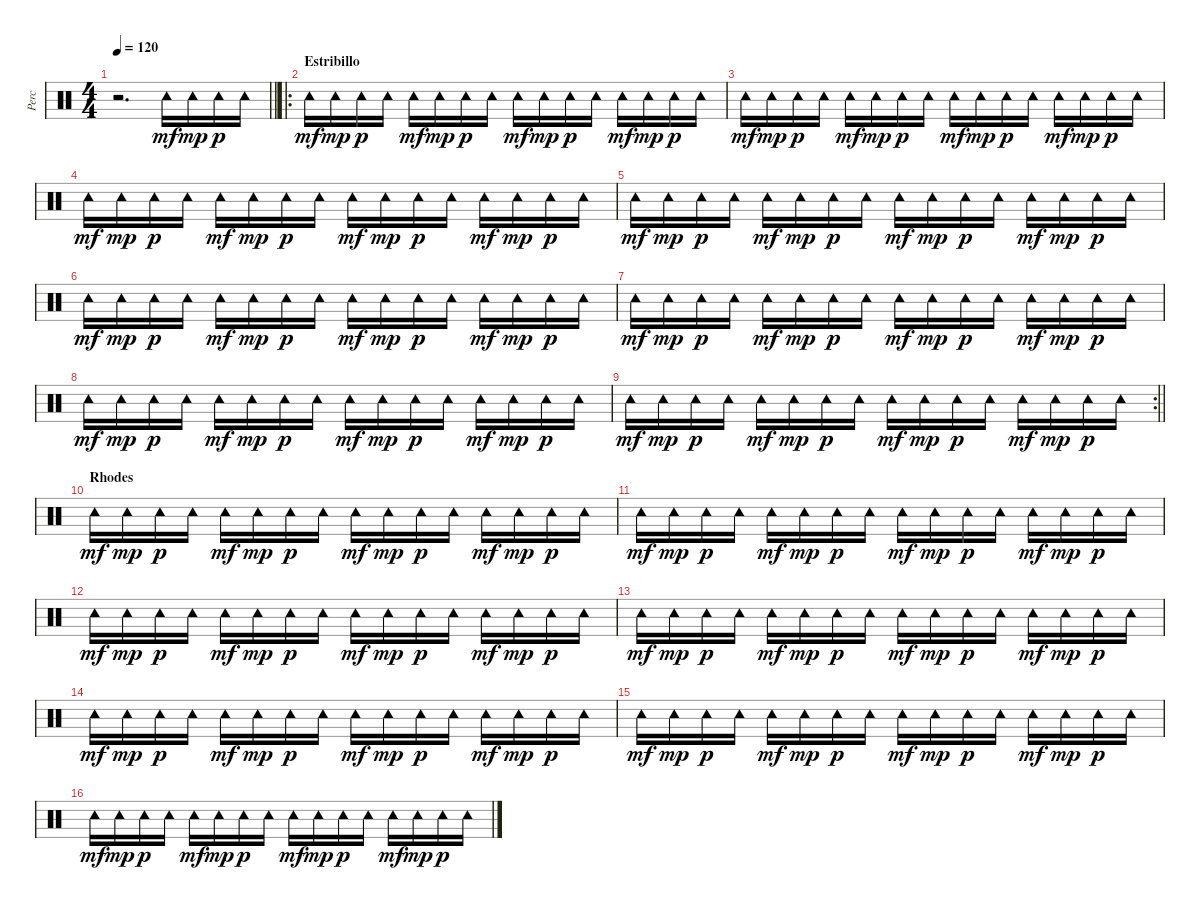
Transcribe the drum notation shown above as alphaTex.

\track ("Perc" "Perc") {instrument percussion}
\staff {score}
\articulation defaults
\ts (4 4)
\tempo 120
\clef neutral
\barLineRight lightlight
\ks c
r.2{d dy mf} "Tambourine (hit)".16 "Tambourine (hit)".16{dy mp} "Tambourine (hit)".16{dy p} "Tambourine (hit)".16 |
\ro
\section ("" "Estribillo")
"Tambourine (hit)".16{dy mf} "Tambourine (hit)".16{dy mp} "Tambourine (hit)".16{dy p} "Tambourine (hit)".16 "Tambourine (hit)".16{dy mf} "Tambourine (hit)".16{dy mp} "Tambourine (hit)".16{dy p} "Tambourine (hit)".16 "Tambourine (hit)".16{dy mf} "Tambourine (hit)".16{dy mp} "Tambourine (hit)".16{dy p} "Tambourine (hit)".16 "Tambourine (hit)".16{dy mf} "Tambourine (hit)".16{dy mp} "Tambourine (hit)".16{dy p} "Tambourine (hit)".16 |
"Tambourine (hit)".16{dy mf} "Tambourine (hit)".16{dy mp} "Tambourine (hit)".16{dy p} "Tambourine (hit)".16 "Tambourine (hit)".16{dy mf} "Tambourine (hit)".16{dy mp} "Tambourine (hit)".16{dy p} "Tambourine (hit)".16 "Tambourine (hit)".16{dy mf} "Tambourine (hit)".16{dy mp} "Tambourine (hit)".16{dy p} "Tambourine (hit)".16 "Tambourine (hit)".16{dy mf} "Tambourine (hit)".16{dy mp} "Tambourine (hit)".16{dy p} "Tambourine (hit)".16 |
"Tambourine (hit)".16{dy mf} "Tambourine (hit)".16{dy mp} "Tambourine (hit)".16{dy p} "Tambourine (hit)".16 "Tambourine (hit)".16{dy mf} "Tambourine (hit)".16{dy mp} "Tambourine (hit)".16{dy p} "Tambourine (hit)".16 "Tambourine (hit)".16{dy mf} "Tambourine (hit)".16{dy mp} "Tambourine (hit)".16{dy p} "Tambourine (hit)".16 "Tambourine (hit)".16{dy mf} "Tambourine (hit)".16{dy mp} "Tambourine (hit)".16{dy p} "Tambourine (hit)".16 |
"Tambourine (hit)".16{dy mf} "Tambourine (hit)".16{dy mp} "Tambourine (hit)".16{dy p} "Tambourine (hit)".16 "Tambourine (hit)".16{dy mf} "Tambourine (hit)".16{dy mp} "Tambourine (hit)".16{dy p} "Tambourine (hit)".16 "Tambourine (hit)".16{dy mf} "Tambourine (hit)".16{dy mp} "Tambourine (hit)".16{dy p} "Tambourine (hit)".16 "Tambourine (hit)".16{dy mf} "Tambourine (hit)".16{dy mp} "Tambourine (hit)".16{dy p} "Tambourine (hit)".16 |
"Tambourine (hit)".16{dy mf} "Tambourine (hit)".16{dy mp} "Tambourine (hit)".16{dy p} "Tambourine (hit)".16 "Tambourine (hit)".16{dy mf} "Tambourine (hit)".16{dy mp} "Tambourine (hit)".16{dy p} "Tambourine (hit)".16 "Tambourine (hit)".16{dy mf} "Tambourine (hit)".16{dy mp} "Tambourine (hit)".16{dy p} "Tambourine (hit)".16 "Tambourine (hit)".16{dy mf} "Tambourine (hit)".16{dy mp} "Tambourine (hit)".16{dy p} "Tambourine (hit)".16 |
"Tambourine (hit)".16{dy mf} "Tambourine (hit)".16{dy mp} "Tambourine (hit)".16{dy p} "Tambourine (hit)".16 "Tambourine (hit)".16{dy mf} "Tambourine (hit)".16{dy mp} "Tambourine (hit)".16{dy p} "Tambourine (hit)".16 "Tambourine (hit)".16{dy mf} "Tambourine (hit)".16{dy mp} "Tambourine (hit)".16{dy p} "Tambourine (hit)".16 "Tambourine (hit)".16{dy mf} "Tambourine (hit)".16{dy mp} "Tambourine (hit)".16{dy p} "Tambourine (hit)".16 |
"Tambourine (hit)".16{dy mf} "Tambourine (hit)".16{dy mp} "Tambourine (hit)".16{dy p} "Tambourine (hit)".16 "Tambourine (hit)".16{dy mf} "Tambourine (hit)".16{dy mp} "Tambourine (hit)".16{dy p} "Tambourine (hit)".16 "Tambourine (hit)".16{dy mf} "Tambourine (hit)".16{dy mp} "Tambourine (hit)".16{dy p} "Tambourine (hit)".16 "Tambourine (hit)".16{dy mf} "Tambourine (hit)".16{dy mp} "Tambourine (hit)".16{dy p} "Tambourine (hit)".16 |
\rc 2
\barLineRight lightlight "Tambourine (hit)".16{dy mf} "Tambourine (hit)".16{dy mp} "Tambourine (hit)".16{dy p} "Tambourine (hit)".16 "Tambourine (hit)".16{dy mf} "Tambourine (hit)".16{dy mp} "Tambourine (hit)".16{dy p} "Tambourine (hit)".16 "Tambourine (hit)".16{dy mf} "Tambourine (hit)".16{dy mp} "Tambourine (hit)".16{dy p} "Tambourine (hit)".16 "Tambourine (hit)".16{dy mf} "Tambourine (hit)".16{dy mp} "Tambourine (hit)".16{dy p} "Tambourine (hit)".16
|
\section ("" "Rhodes")
"Tambourine (hit)".16{dy mf} "Tambourine (hit)".16{dy mp} "Tambourine (hit)".16{dy p} "Tambourine (hit)".16 "Tambourine (hit)".16{dy mf} "Tambourine (hit)".16{dy mp} "Tambourine (hit)".16{dy p} "Tambourine (hit)".16 "Tambourine (hit)".16{dy mf} "Tambourine (hit)".16{dy mp} "Tambourine (hit)".16{dy p} "Tambourine (hit)".16 "Tambourine (hit)".16{dy mf} "Tambourine (hit)".16{dy mp} "Tambourine (hit)".16{dy p} "Tambourine (hit)".16 |
"Tambourine (hit)".16{dy mf} "Tambourine (hit)".16{dy mp} "Tambourine (hit)".16{dy p} "Tambourine (hit)".16 "Tambourine (hit)".16{dy mf} "Tambourine (hit)".16{dy mp} "Tambourine (hit)".16{dy p} "Tambourine (hit)".16 "Tambourine (hit)".16{dy mf} "Tambourine (hit)".16{dy mp} "Tambourine (hit)".16{dy p} "Tambourine (hit)".16 "Tambourine (hit)".16{dy mf} "Tambourine (hit)".16{dy mp} "Tambourine (hit)".16{dy p} "Tambourine (hit)".16 |
"Tambourine (hit)".16{dy mf} "Tambourine (hit)".16{dy mp} "Tambourine (hit)".16{dy p} "Tambourine (hit)".16 "Tambourine (hit)".16{dy mf} "Tambourine (hit)".16{dy mp} "Tambourine (hit)".16{dy p} "Tambourine (hit)".16 "Tambourine (hit)".16{dy mf} "Tambourine (hit)".16{dy mp} "Tambourine (hit)".16{dy p} "Tambourine (hit)".16 "Tambourine (hit)".16{dy mf} "Tambourine (hit)".16{dy mp} "Tambourine (hit)".16{dy p} "Tambourine (hit)".16 |
"Tambourine (hit)".16{dy mf} "Tambourine (hit)".16{dy mp} "Tambourine (hit)".16{dy p} "Tambourine (hit)".16 "Tambourine (hit)".16{dy mf} "Tambourine (hit)".16{dy mp} "Tambourine (hit)".16{dy p} "Tambourine (hit)".16 "Tambourine (hit)".16{dy mf} "Tambourine (hit)".16{dy mp} "Tambourine (hit)".16{dy p} "Tambourine (hit)".16 "Tambourine (hit)".16{dy mf} "Tambourine (hit)".16{dy mp} "Tambourine (hit)".16{dy p} "Tambourine (hit)".16 |
"Tambourine (hit)".16{dy mf} "Tambourine (hit)".16{dy mp} "Tambourine (hit)".16{dy p} "Tambourine (hit)".16 "Tambourine (hit)".16{dy mf} "Tambourine (hit)".16{dy mp} "Tambourine (hit)".16{dy p} "Tambourine (hit)".16 "Tambourine (hit)".16{dy mf} "Tambourine (hit)".16{dy mp} "Tambourine (hit)".16{dy p} "Tambourine (hit)".16 "Tambourine (hit)".16{dy mf} "Tambourine (hit)".16{dy mp} "Tambourine (hit)".16{dy p} "Tambourine (hit)".16 |
"Tambourine (hit)".16{dy mf} "Tambourine (hit)".16{dy mp} "Tambourine (hit)".16{dy p} "Tambourine (hit)".16 "Tambourine (hit)".16{dy mf} "Tambourine (hit)".16{dy mp} "Tambourine (hit)".16{dy p} "Tambourine (hit)".16 "Tambourine (hit)".16{dy mf} "Tambourine (hit)".16{dy mp} "Tambourine (hit)".16{dy p} "Tambourine (hit)".16 "Tambourine (hit)".16{dy mf} "Tambourine (hit)".16{dy mp} "Tambourine (hit)".16{dy p} "Tambourine (hit)".16 |
"Tambourine (hit)".16{dy mf} "Tambourine (hit)".16{dy mp} "Tambourine (hit)".16{dy p} "Tambourine (hit)".16 "Tambourine (hit)".16{dy mf} "Tambourine (hit)".16{dy mp} "Tambourine (hit)".16{dy p} "Tambourine (hit)".16 "Tambourine (hit)".16{dy mf} "Tambourine (hit)".16{dy mp} "Tambourine (hit)".16{dy p} "Tambourine (hit)".16 "Tambourine (hit)".16{dy mf} "Tambourine (hit)".16{dy mp} "Tambourine (hit)".16{dy p} "Tambourine (hit)".16
